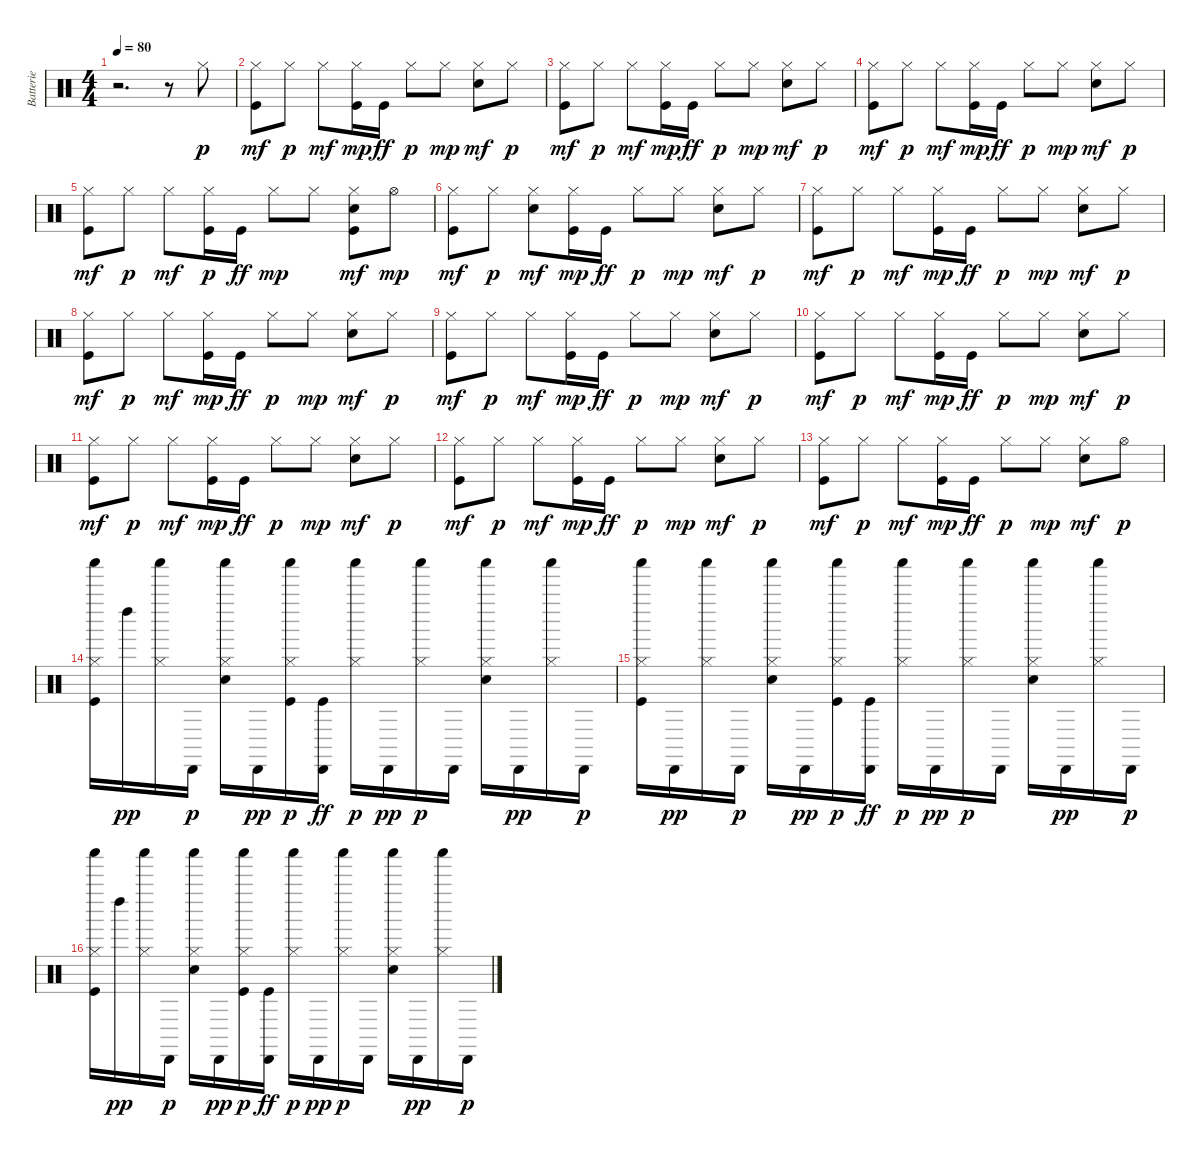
\track ("Batterie" "Batterie") {instrument percussion}
\staff {score}
\articulation defaults
\ts (4 4)
\tempo 80
\clef neutral
\ks c
r.2{d dy p} r.8 "Hi-Hat (closed)".8 |
("Kick (hit)" "Hi-Hat (closed)").8{dy mf} "Hi-Hat (closed)".8{dy p} "Hi-Hat (closed)".8{dy mf} ("Kick (hit)" "Hi-Hat (closed)").16{dy mp} "Kick (hit)".16{dy ff} "Hi-Hat (closed)".8{dy p} "Hi-Hat (closed)".8{dy mp} ("Snare (hit) 2" "Hi-Hat (closed)").8{dy mf} "Hi-Hat (closed)".8{dy p} |
("Kick (hit)" "Hi-Hat (closed)").8{dy mf} "Hi-Hat (closed)".8{dy p} "Hi-Hat (closed)".8{dy mf} ("Kick (hit)" "Hi-Hat (closed)").16{dy mp} "Kick (hit)".16{dy ff} "Hi-Hat (closed)".8{dy p} "Hi-Hat (closed)".8{dy mp} ("Snare (hit) 2" "Hi-Hat (closed)").8{dy mf} "Hi-Hat (closed)".8{dy p} |
("Kick (hit)" "Hi-Hat (closed)").8{dy mf} "Hi-Hat (closed)".8{dy p} "Hi-Hat (closed)".8{dy mf} ("Kick (hit)" "Hi-Hat (closed)").16{dy mp} "Kick (hit)".16{dy ff} "Hi-Hat (closed)".8{dy p} "Hi-Hat (closed)".8{dy mp} ("Snare (hit) 2" "Hi-Hat (closed)").8{dy mf} "Hi-Hat (closed)".8{dy p} |
("Kick (hit)" "Hi-Hat (closed)").8{dy mf} "Hi-Hat (closed)".8{dy p} "Hi-Hat (closed)".8{dy mf} ("Kick (hit)" "Hi-Hat (closed)").16{dy p} "Kick (hit)".16{dy ff} "Hi-Hat (closed)".8{dy mp} "Hi-Hat (closed)".8 ("Kick (hit)" "Snare (hit) 2" "Hi-Hat (closed)").8{dy mf} "Hi-Hat (open)".8{dy mp} |
("Kick (hit)" "Hi-Hat (closed)").8{dy mf} "Hi-Hat (closed)".8{dy p} ("Snare (hit) 2" "Hi-Hat (closed)").8{dy mf} ("Kick (hit)" "Hi-Hat (closed)").16{dy mp} "Kick (hit)".16{dy ff} "Hi-Hat (closed)".8{dy p} "Hi-Hat (closed)".8{dy mp} ("Snare (hit) 2" "Hi-Hat (closed)").8{dy mf} "Hi-Hat (closed)".8{dy p} |
("Kick (hit)" "Hi-Hat (closed)").8{dy mf} "Hi-Hat (closed)".8{dy p} "Hi-Hat (closed)".8{dy mf} ("Kick (hit)" "Hi-Hat (closed)").16{dy mp} "Kick (hit)".16{dy ff} "Hi-Hat (closed)".8{dy p} "Hi-Hat (closed)".8{dy mp} ("Snare (hit) 2" "Hi-Hat (closed)").8{dy mf} "Hi-Hat (closed)".8{dy p} |
("Kick (hit)" "Hi-Hat (closed)").8{dy mf} "Hi-Hat (closed)".8{dy p} "Hi-Hat (closed)".8{dy mf} ("Kick (hit)" "Hi-Hat (closed)").16{dy mp} "Kick (hit)".16{dy ff} "Hi-Hat (closed)".8{dy p} "Hi-Hat (closed)".8{dy mp} ("Snare (hit) 2" "Hi-Hat (closed)").8{dy mf} "Hi-Hat (closed)".8{dy p} |
("Kick (hit)" "Hi-Hat (closed)").8{dy mf} "Hi-Hat (closed)".8{dy p} "Hi-Hat (closed)".8{dy mf} ("Kick (hit)" "Hi-Hat (closed)").16{dy mp} "Kick (hit)".16{dy ff} "Hi-Hat (closed)".8{dy p} "Hi-Hat (closed)".8{dy mp} ("Snare (hit) 2" "Hi-Hat (closed)").8{dy mf} "Hi-Hat (closed)".8{dy p} |
("Kick (hit)" "Hi-Hat (closed)").8{dy mf} "Hi-Hat (closed)".8{dy p} "Hi-Hat (closed)".8{dy mf} ("Kick (hit)" "Hi-Hat (closed)").16{dy mp} "Kick (hit)".16{dy ff} "Hi-Hat (closed)".8{dy p} "Hi-Hat (closed)".8{dy mp} ("Snare (hit) 2" "Hi-Hat (closed)").8{dy mf} "Hi-Hat (closed)".8{dy p} |
("Kick (hit)" "Hi-Hat (closed)").8{dy mf} "Hi-Hat (closed)".8{dy p} "Hi-Hat (closed)".8{dy mf} ("Kick (hit)" "Hi-Hat (closed)").16{dy mp} "Kick (hit)".16{dy ff} "Hi-Hat (closed)".8{dy p} "Hi-Hat (closed)".8{dy mp} ("Snare (hit) 2" "Hi-Hat (closed)").8{dy mf} "Hi-Hat (closed)".8{dy p} |
("Kick (hit)" "Hi-Hat (closed)").8{dy mf} "Hi-Hat (closed)".8{dy p} "Hi-Hat (closed)".8{dy mf} ("Kick (hit)" "Hi-Hat (closed)").16{dy mp} "Kick (hit)".16{dy ff} "Hi-Hat (closed)".8{dy p} "Hi-Hat (closed)".8{dy mp} ("Snare (hit) 2" "Hi-Hat (closed)").8{dy mf} "Hi-Hat (closed)".8{dy p} |
("Kick (hit)" "Hi-Hat (closed)").8{dy mf} "Hi-Hat (closed)".8{dy p} "Hi-Hat (closed)".8{dy mf} ("Kick (hit)" "Hi-Hat (closed)").16{dy mp} "Kick (hit)".16{dy ff} "Hi-Hat (closed)".8{dy p} "Hi-Hat (closed)".8{dy mp} ("Snare (hit) 2" "Hi-Hat (closed)").8{dy mf} "Hi-Hat (open)".8{dy p} |
("Kick (hit)" "Hi-Hat (closed)" "Shaker (hit)").16 "Left Maraca (hit)".16{dy pp} ("Hi-Hat (closed)" "Shaker (hit)").16 "Cabasa (hit)".16{dy p} ("Snare (hit) 2" "Hi-Hat (closed)" "Shaker (hit)").16 "Cabasa (hit)".16{dy pp} ("Kick (hit)" "Hi-Hat (closed)" "Shaker (hit)").16{dy p} ("Cabasa (hit)" "Kick (hit)").16{dy ff} ("Hi-Hat (closed)" "Shaker (hit)").16{dy p} "Cabasa (hit)".16{dy pp} ("Hi-Hat (closed)" "Shaker (hit)").16{dy p} "Cabasa (hit)".16 ("Snare (hit) 2" "Hi-Hat (closed)" "Shaker (hit)").16 "Cabasa (hit)".16{dy pp} ("Hi-Hat (closed)" "Shaker (hit)").16 "Cabasa (hit)".16{dy p} |
("Kick (hit)" "Hi-Hat (closed)" "Shaker (hit)").16 "Cabasa (hit)".16{dy pp} ("Hi-Hat (closed)" "Shaker (hit)").16 "Cabasa (hit)".16{dy p} ("Snare (hit) 2" "Hi-Hat (closed)" "Shaker (hit)").16 "Cabasa (hit)".16{dy pp} ("Kick (hit)" "Hi-Hat (closed)" "Shaker (hit)").16{dy p} ("Cabasa (hit)" "Kick (hit)").16{dy ff} ("Hi-Hat (closed)" "Shaker (hit)").16{dy p} "Cabasa (hit)".16{dy pp} ("Hi-Hat (closed)" "Shaker (hit)").16{dy p} "Cabasa (hit)".16 ("Snare (hit) 2" "Hi-Hat (closed)" "Shaker (hit)").16 "Cabasa (hit)".16{dy pp} ("Hi-Hat (closed)" "Shaker (hit)").16 "Cabasa (hit)".16{dy p} |
("Kick (hit)" "Hi-Hat (closed)" "Shaker (hit)").16 "Left Maraca (hit)".16{dy pp} ("Hi-Hat (closed)" "Shaker (hit)").16 "Cabasa (hit)".16{dy p} ("Snare (hit) 2" "Hi-Hat (closed)" "Shaker (hit)").16 "Cabasa (hit)".16{dy pp} ("Kick (hit)" "Hi-Hat (closed)" "Shaker (hit)").16{dy p} ("Cabasa (hit)" "Kick (hit)").16{dy ff} ("Hi-Hat (closed)" "Shaker (hit)").16{dy p} "Cabasa (hit)".16{dy pp} ("Hi-Hat (closed)" "Shaker (hit)").16{dy p} "Cabasa (hit)".16 ("Snare (hit) 2" "Hi-Hat (closed)" "Shaker (hit)").16 "Cabasa (hit)".16{dy pp} ("Hi-Hat (closed)" "Shaker (hit)").16 "Cabasa (hit)".16{dy p}
